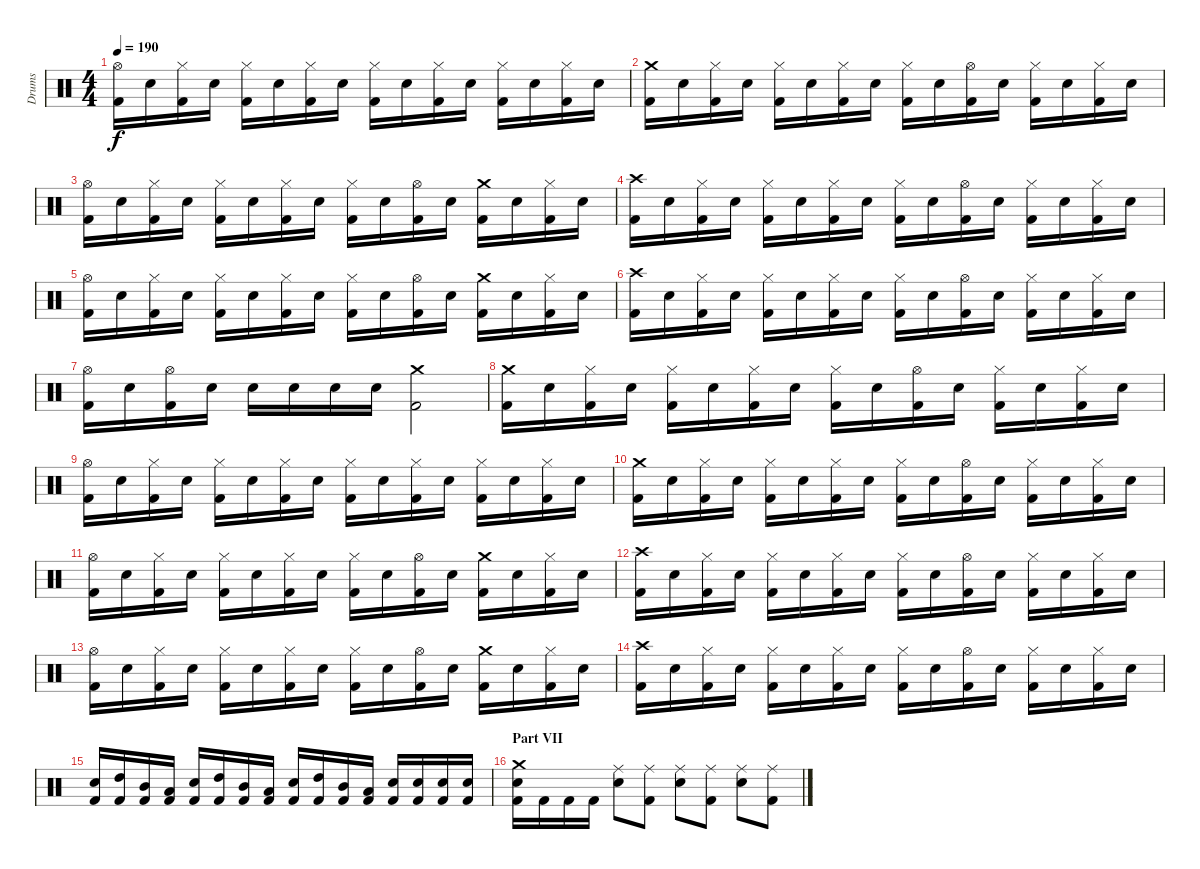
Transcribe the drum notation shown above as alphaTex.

\track ("Drums" "Drums") {instrument percussion}
\staff {score}
\articulation defaults
\ts (4 4)
\tempo 190
\clef neutral
\ks c
("Kick (hit) 2" "Hi-Hat (open)").16{dy f} "Electric Snare (hit)".16 ("Kick (hit) 2" "Hi-Hat (closed)").16 "Electric Snare (hit)".16 ("Kick (hit) 2" "Hi-Hat (closed)").16 "Electric Snare (hit)".16 ("Kick (hit) 2" "Hi-Hat (closed)").16 "Electric Snare (hit)".16 ("Kick (hit) 2" "Hi-Hat (closed)").16 "Electric Snare (hit)".16 ("Kick (hit) 2" "Hi-Hat (closed)").16 "Electric Snare (hit)".16 ("Kick (hit) 2" "Hi-Hat (closed)").16 "Electric Snare (hit)".16 ("Kick (hit) 2" "Hi-Hat (closed)").16 "Electric Snare (hit)".16 |
("Kick (hit) 2" "Crash medium (hit)").16 "Electric Snare (hit)".16 ("Kick (hit) 2" "Hi-Hat (closed)").16 "Electric Snare (hit)".16 ("Kick (hit) 2" "Hi-Hat (closed)").16 "Electric Snare (hit)".16 ("Kick (hit) 2" "Hi-Hat (closed)").16 "Electric Snare (hit)".16 ("Kick (hit) 2" "Hi-Hat (closed)").16 "Electric Snare (hit)".16 ("Kick (hit) 2" "Hi-Hat (open)").16 "Electric Snare (hit)".16 ("Kick (hit) 2" "Hi-Hat (closed)").16 "Electric Snare (hit)".16 ("Kick (hit) 2" "Hi-Hat (closed)").16 "Electric Snare (hit)".16 |
("Kick (hit) 2" "Hi-Hat (open)").16 "Electric Snare (hit)".16 ("Kick (hit) 2" "Hi-Hat (closed)").16 "Electric Snare (hit)".16 ("Kick (hit) 2" "Hi-Hat (closed)").16 "Electric Snare (hit)".16 ("Kick (hit) 2" "Hi-Hat (closed)").16 "Electric Snare (hit)".16 ("Kick (hit) 2" "Hi-Hat (closed)").16 "Electric Snare (hit)".16 ("Kick (hit) 2" "Hi-Hat (open)").16 "Electric Snare (hit)".16 ("Kick (hit) 2" "Crash medium (hit)").16 "Electric Snare (hit)".16 ("Kick (hit) 2" "Hi-Hat (closed)").16 "Electric Snare (hit)".16 |
("Kick (hit) 2" "Crash high (hit)").16 "Electric Snare (hit)".16 ("Kick (hit) 2" "Hi-Hat (closed)").16 "Electric Snare (hit)".16 ("Kick (hit) 2" "Hi-Hat (closed)").16 "Electric Snare (hit)".16 ("Kick (hit) 2" "Hi-Hat (closed)").16 "Electric Snare (hit)".16 ("Kick (hit) 2" "Hi-Hat (closed)").16 "Electric Snare (hit)".16 ("Kick (hit) 2" "Hi-Hat (open)").16 "Electric Snare (hit)".16 ("Kick (hit) 2" "Hi-Hat (closed)").16 "Electric Snare (hit)".16 ("Kick (hit) 2" "Hi-Hat (closed)").16 "Electric Snare (hit)".16 |
("Kick (hit) 2" "Hi-Hat (open)").16 "Electric Snare (hit)".16 ("Kick (hit) 2" "Hi-Hat (closed)").16 "Electric Snare (hit)".16 ("Kick (hit) 2" "Hi-Hat (closed)").16 "Electric Snare (hit)".16 ("Kick (hit) 2" "Hi-Hat (closed)").16 "Electric Snare (hit)".16 ("Kick (hit) 2" "Hi-Hat (closed)").16 "Electric Snare (hit)".16 ("Kick (hit) 2" "Hi-Hat (open)").16 "Electric Snare (hit)".16 ("Kick (hit) 2" "Crash medium (hit)").16 "Electric Snare (hit)".16 ("Kick (hit) 2" "Hi-Hat (closed)").16 "Electric Snare (hit)".16 |
("Kick (hit) 2" "Crash high (hit)").16 "Electric Snare (hit)".16 ("Kick (hit) 2" "Hi-Hat (closed)").16 "Electric Snare (hit)".16 ("Kick (hit) 2" "Hi-Hat (closed)").16 "Electric Snare (hit)".16 ("Kick (hit) 2" "Hi-Hat (closed)").16 "Electric Snare (hit)".16 ("Kick (hit) 2" "Hi-Hat (closed)").16 "Electric Snare (hit)".16 ("Kick (hit) 2" "Hi-Hat (open)").16 "Electric Snare (hit)".16 ("Kick (hit) 2" "Hi-Hat (closed)").16 "Electric Snare (hit)".16 ("Kick (hit) 2" "Hi-Hat (closed)").16 "Electric Snare (hit)".16 |
("Kick (hit) 2" "Hi-Hat (open)").16 "Electric Snare (hit)".16 ("Kick (hit) 2" "Hi-Hat (open)").16 "Electric Snare (hit)".16 "Electric Snare (hit)".16 "Electric Snare (hit)".16 "Electric Snare (hit)".16 "Electric Snare (hit)".16 ("Kick (hit) 2" "Crash medium (hit)").2 |
("Kick (hit) 2" "Crash medium (hit)").16 "Electric Snare (hit)".16 ("Kick (hit) 2" "Hi-Hat (closed)").16 "Electric Snare (hit)".16 ("Kick (hit) 2" "Hi-Hat (closed)").16 "Electric Snare (hit)".16 ("Kick (hit) 2" "Hi-Hat (closed)").16 "Electric Snare (hit)".16 ("Kick (hit) 2" "Hi-Hat (closed)").16 "Electric Snare (hit)".16 ("Kick (hit) 2" "Hi-Hat (open)").16 "Electric Snare (hit)".16 ("Kick (hit) 2" "Hi-Hat (closed)").16 "Electric Snare (hit)".16 ("Kick (hit) 2" "Hi-Hat (closed)").16 "Electric Snare (hit)".16 |
("Kick (hit) 2" "Hi-Hat (open)").16 "Electric Snare (hit)".16 ("Kick (hit) 2" "Hi-Hat (closed)").16 "Electric Snare (hit)".16 ("Kick (hit) 2" "Hi-Hat (closed)").16 "Electric Snare (hit)".16 ("Kick (hit) 2" "Hi-Hat (closed)").16 "Electric Snare (hit)".16 ("Kick (hit) 2" "Hi-Hat (closed)").16 "Electric Snare (hit)".16 ("Kick (hit) 2" "Hi-Hat (closed)").16 "Electric Snare (hit)".16 ("Kick (hit) 2" "Hi-Hat (closed)").16 "Electric Snare (hit)".16 ("Kick (hit) 2" "Hi-Hat (closed)").16 "Electric Snare (hit)".16 |
("Kick (hit) 2" "Crash medium (hit)").16 "Electric Snare (hit)".16 ("Kick (hit) 2" "Hi-Hat (closed)").16 "Electric Snare (hit)".16 ("Kick (hit) 2" "Hi-Hat (closed)").16 "Electric Snare (hit)".16 ("Kick (hit) 2" "Hi-Hat (closed)").16 "Electric Snare (hit)".16 ("Kick (hit) 2" "Hi-Hat (closed)").16 "Electric Snare (hit)".16 ("Kick (hit) 2" "Hi-Hat (open)").16 "Electric Snare (hit)".16 ("Kick (hit) 2" "Hi-Hat (closed)").16 "Electric Snare (hit)".16 ("Kick (hit) 2" "Hi-Hat (closed)").16 "Electric Snare (hit)".16 |
("Kick (hit) 2" "Hi-Hat (open)").16 "Electric Snare (hit)".16 ("Kick (hit) 2" "Hi-Hat (closed)").16 "Electric Snare (hit)".16 ("Kick (hit) 2" "Hi-Hat (closed)").16 "Electric Snare (hit)".16 ("Kick (hit) 2" "Hi-Hat (closed)").16 "Electric Snare (hit)".16 ("Kick (hit) 2" "Hi-Hat (closed)").16 "Electric Snare (hit)".16 ("Kick (hit) 2" "Hi-Hat (open)").16 "Electric Snare (hit)".16 ("Kick (hit) 2" "Crash medium (hit)").16 "Electric Snare (hit)".16 ("Kick (hit) 2" "Hi-Hat (closed)").16 "Electric Snare (hit)".16 |
("Kick (hit) 2" "Crash high (hit)").16 "Electric Snare (hit)".16 ("Kick (hit) 2" "Hi-Hat (closed)").16 "Electric Snare (hit)".16 ("Kick (hit) 2" "Hi-Hat (closed)").16 "Electric Snare (hit)".16 ("Kick (hit) 2" "Hi-Hat (closed)").16 "Electric Snare (hit)".16 ("Kick (hit) 2" "Hi-Hat (closed)").16 "Electric Snare (hit)".16 ("Kick (hit) 2" "Hi-Hat (open)").16 "Electric Snare (hit)".16 ("Kick (hit) 2" "Hi-Hat (closed)").16 "Electric Snare (hit)".16 ("Kick (hit) 2" "Hi-Hat (closed)").16 "Electric Snare (hit)".16 |
("Kick (hit) 2" "Hi-Hat (open)").16 "Electric Snare (hit)".16 ("Kick (hit) 2" "Hi-Hat (closed)").16 "Electric Snare (hit)".16 ("Kick (hit) 2" "Hi-Hat (closed)").16 "Electric Snare (hit)".16 ("Kick (hit) 2" "Hi-Hat (closed)").16 "Electric Snare (hit)".16 ("Kick (hit) 2" "Hi-Hat (closed)").16 "Electric Snare (hit)".16 ("Kick (hit) 2" "Hi-Hat (open)").16 "Electric Snare (hit)".16 ("Kick (hit) 2" "Crash medium (hit)").16 "Electric Snare (hit)".16 ("Kick (hit) 2" "Hi-Hat (closed)").16 "Electric Snare (hit)".16 |
("Kick (hit) 2" "Crash high (hit)").16 "Electric Snare (hit)".16 ("Kick (hit) 2" "Hi-Hat (closed)").16 "Electric Snare (hit)".16 ("Kick (hit) 2" "Hi-Hat (closed)").16 "Electric Snare (hit)".16 ("Kick (hit) 2" "Hi-Hat (closed)").16 "Electric Snare (hit)".16 ("Kick (hit) 2" "Hi-Hat (closed)").16 "Electric Snare (hit)".16 ("Kick (hit) 2" "Hi-Hat (open)").16 "Electric Snare (hit)".16 ("Kick (hit) 2" "Hi-Hat (closed)").16 "Electric Snare (hit)".16 ("Kick (hit) 2" "Hi-Hat (closed)").16 "Electric Snare (hit)".16 |
("Kick (hit) 2" "Electric Snare (hit)").16 ("Kick (hit) 2" "High Tom (hit)").16 ("Kick (hit) 2" "Mid Tom (hit)").16 ("Kick (hit) 2" "Low Tom (hit)").16 ("Kick (hit) 2" "Electric Snare (hit)").16 ("Kick (hit) 2" "High Tom (hit)").16 ("Kick (hit) 2" "Mid Tom (hit)").16 ("Kick (hit) 2" "Low Tom (hit)").16 ("Kick (hit) 2" "Electric Snare (hit)").16 ("Kick (hit) 2" "High Tom (hit)").16 ("Kick (hit) 2" "Mid Tom (hit)").16 ("Kick (hit) 2" "Low Tom (hit)").16 ("Kick (hit) 2" "Electric Snare (hit)").16 ("Kick (hit) 2" "Electric Snare (hit)").16 ("Kick (hit) 2" "Electric Snare (hit)").16 ("Kick (hit) 2" "Electric Snare (hit)").16 |
\section ("" "Part VII")
("Kick (hit) 2" "Electric Snare (hit)" "Crash medium (hit)").16 "Kick (hit) 2".16 "Kick (hit) 2".16 "Kick (hit) 2".16 ("Electric Snare (hit)" "Ride (middle)").8 ("Kick (hit) 2" "Ride (middle)").8 ("Electric Snare (hit)" "Ride (middle)").8 ("Kick (hit) 2" "Ride (middle)").8 ("Electric Snare (hit)" "Ride (middle)").8 ("Kick (hit) 2" "Ride (middle)").8
